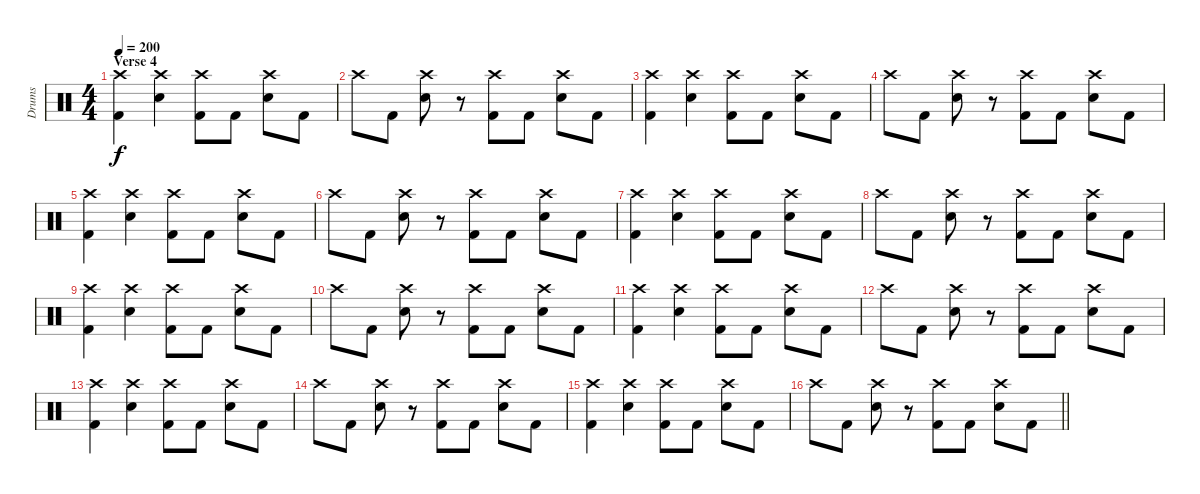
\track ("Drums" "Drums") {instrument percussion}
\staff {score}
\articulation defaults
\ts (4 4)
\section ("" "Verse 4")
\tempo 200
\clef neutral
\ks c
("Crash high (hit)" "Kick (hit) 2").4{dy f} ("Crash high (hit)" "Snare (hit) 2").4 ("Crash high (hit)" "Kick (hit) 2").8 "Kick (hit) 2".8 ("Crash high (hit)" "Snare (hit) 2").8 "Kick (hit) 2".8 |
"Crash high (hit)".8 "Kick (hit) 2".8 ("Crash high (hit)" "Snare (hit) 2").8 r.8 ("Crash high (hit)" "Kick (hit) 2").8 "Kick (hit) 2".8 ("Crash high (hit)" "Snare (hit) 2").8 "Kick (hit) 2".8 |
("Crash high (hit)" "Kick (hit) 2").4 ("Crash high (hit)" "Snare (hit) 2").4 ("Crash high (hit)" "Kick (hit) 2").8 "Kick (hit) 2".8 ("Crash high (hit)" "Snare (hit) 2").8 "Kick (hit) 2".8 |
"Crash high (hit)".8 "Kick (hit) 2".8 ("Crash high (hit)" "Snare (hit) 2").8 r.8 ("Crash high (hit)" "Kick (hit) 2").8 "Kick (hit) 2".8 ("Crash high (hit)" "Snare (hit) 2").8 "Kick (hit) 2".8 |
("Crash high (hit)" "Kick (hit) 2").4 ("Crash high (hit)" "Snare (hit) 2").4 ("Crash high (hit)" "Kick (hit) 2").8 "Kick (hit) 2".8 ("Crash high (hit)" "Snare (hit) 2").8 "Kick (hit) 2".8 |
"Crash high (hit)".8 "Kick (hit) 2".8 ("Crash high (hit)" "Snare (hit) 2").8 r.8 ("Crash high (hit)" "Kick (hit) 2").8 "Kick (hit) 2".8 ("Crash high (hit)" "Snare (hit) 2").8 "Kick (hit) 2".8 |
("Crash high (hit)" "Kick (hit) 2").4 ("Crash high (hit)" "Snare (hit) 2").4 ("Crash high (hit)" "Kick (hit) 2").8 "Kick (hit) 2".8 ("Crash high (hit)" "Snare (hit) 2").8 "Kick (hit) 2".8 |
"Crash high (hit)".8 "Kick (hit) 2".8 ("Crash high (hit)" "Snare (hit) 2").8 r.8 ("Crash high (hit)" "Kick (hit) 2").8 "Kick (hit) 2".8 ("Crash high (hit)" "Snare (hit) 2").8 "Kick (hit) 2".8 |
("Crash high (hit)" "Kick (hit) 2").4 ("Crash high (hit)" "Snare (hit) 2").4 ("Crash high (hit)" "Kick (hit) 2").8 "Kick (hit) 2".8 ("Crash high (hit)" "Snare (hit) 2").8 "Kick (hit) 2".8 |
"Crash high (hit)".8 "Kick (hit) 2".8 ("Crash high (hit)" "Snare (hit) 2").8 r.8 ("Crash high (hit)" "Kick (hit) 2").8 "Kick (hit) 2".8 ("Crash high (hit)" "Snare (hit) 2").8 "Kick (hit) 2".8 |
("Crash high (hit)" "Kick (hit) 2").4 ("Crash high (hit)" "Snare (hit) 2").4 ("Crash high (hit)" "Kick (hit) 2").8 "Kick (hit) 2".8 ("Crash high (hit)" "Snare (hit) 2").8 "Kick (hit) 2".8 |
"Crash high (hit)".8 "Kick (hit) 2".8 ("Crash high (hit)" "Snare (hit) 2").8 r.8 ("Crash high (hit)" "Kick (hit) 2").8 "Kick (hit) 2".8 ("Crash high (hit)" "Snare (hit) 2").8 "Kick (hit) 2".8 |
("Crash high (hit)" "Kick (hit) 2").4 ("Crash high (hit)" "Snare (hit) 2").4 ("Crash high (hit)" "Kick (hit) 2").8 "Kick (hit) 2".8 ("Crash high (hit)" "Snare (hit) 2").8 "Kick (hit) 2".8 |
"Crash high (hit)".8 "Kick (hit) 2".8 ("Crash high (hit)" "Snare (hit) 2").8 r.8 ("Crash high (hit)" "Kick (hit) 2").8 "Kick (hit) 2".8 ("Crash high (hit)" "Snare (hit) 2").8 "Kick (hit) 2".8 |
("Crash high (hit)" "Kick (hit) 2").4 ("Crash high (hit)" "Snare (hit) 2").4 ("Crash high (hit)" "Kick (hit) 2").8 "Kick (hit) 2".8 ("Crash high (hit)" "Snare (hit) 2").8 "Kick (hit) 2".8 |
\barLineRight lightlight "Crash high (hit)".8 "Kick (hit) 2".8
("Crash high (hit)" "Snare (hit) 2").8 r.8 ("Crash high (hit)" "Kick (hit) 2").8 "Kick (hit) 2".8 ("Crash high (hit)" "Snare (hit) 2").8 "Kick (hit) 2".8
